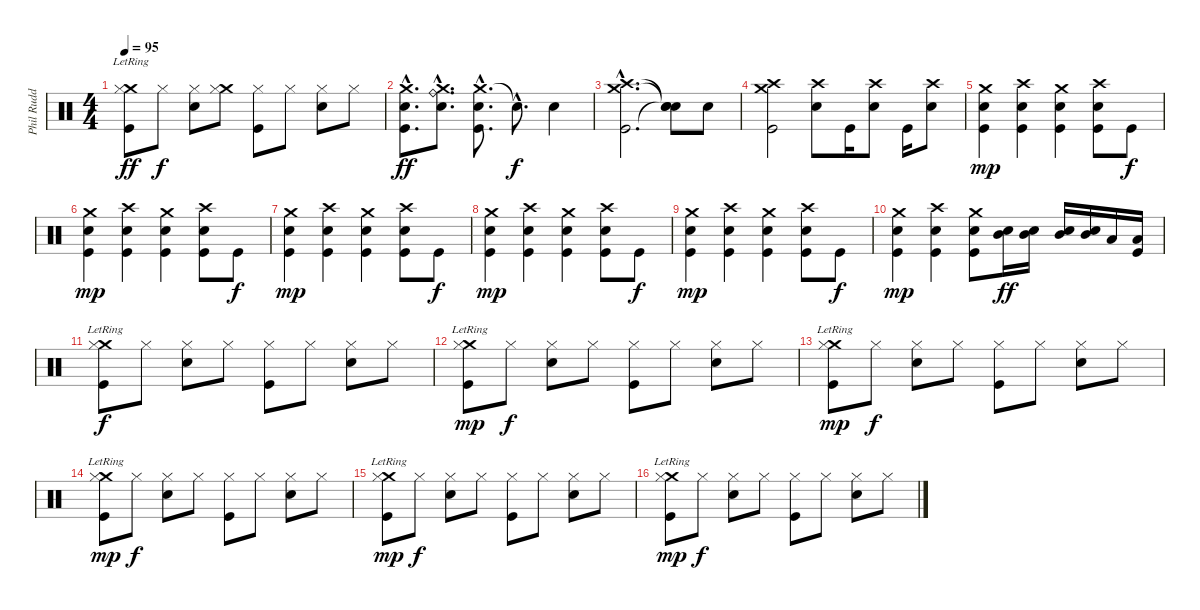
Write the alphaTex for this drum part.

\track ("Phil Rudd" "Phil Rudd") {instrument percussion}
\staff {score}
\articulation defaults
\ts (4 4)
\tempo 95
\clef neutral
\ks c
("Crash medium (hit)"{lr} "Hi-Hat (closed)" "Kick (hit)").8{dy ff} "Hi-Hat (closed)".8{dy f} ("Hi-Hat (closed)" "Snare (hit) 2").8 ("Crash medium (hit)" "Hi-Hat (closed)").8 ("Hi-Hat (closed)" "Kick (hit)").8 "Hi-Hat (closed)".8 ("Hi-Hat (closed)" "Snare (hit) 2").8 "Hi-Hat (closed)".8 |
("Crash medium (hit)"{hac} "Kick (hit)"{hac} "Snare (hit) 2"{hac}).8{d dy ff} ("Crash medium (hit)"{hac} "Ride (bell)"{hac} "Snare (hit) 2"{hac}).8{d} ("Crash medium (hit)"{hac} "Kick (hit)"{hac} "Snare (hit) 2"{hac}).8{d} "Snare (hit)"{hac t}.8{d dy f} "Snare (hit) 2".4 |
("Crash high (hit)"{hac} "Crash medium (hit)"{hac} "Kick (hit)"{hac}).2{d} ("Snare (hit)"{t} "Snare (hit)"{t} "Snare (hit)"{t}).8 "Snare (hit) 2".8 |
("Crash high (hit)" "Crash medium (hit)" "Kick (hit)").2 ("Crash high (hit)" "Snare (hit) 2").8 "Kick (hit)".16 ("Crash high (hit)" "Snare (hit) 2").8 "Kick (hit)".16 ("Crash high (hit)" "Snare (hit) 2").8 |
("Crash medium (hit)" "Kick (hit)" "Snare (hit) 2").4{dy mp} ("Crash high (hit)" "Kick (hit)" "Snare (hit) 2").4 ("Crash medium (hit)" "Kick (hit)" "Snare (hit) 2").4 ("Crash high (hit)" "Kick (hit)" "Snare (hit) 2").8 "Kick (hit)".8{dy f} |
("Crash medium (hit)" "Kick (hit)" "Snare (hit) 2").4{dy mp} ("Crash high (hit)" "Kick (hit)" "Snare (hit) 2").4 ("Crash medium (hit)" "Kick (hit)" "Snare (hit) 2").4 ("Crash high (hit)" "Kick (hit)" "Snare (hit) 2").8 "Kick (hit)".8{dy f} |
("Crash medium (hit)" "Kick (hit)" "Snare (hit) 2").4{dy mp} ("Crash high (hit)" "Kick (hit)" "Snare (hit) 2").4 ("Crash medium (hit)" "Kick (hit)" "Snare (hit) 2").4 ("Crash high (hit)" "Kick (hit)" "Snare (hit) 2").8 "Kick (hit)".8{dy f} |
("Crash medium (hit)" "Kick (hit)" "Snare (hit) 2").4{dy mp} ("Crash high (hit)" "Kick (hit)" "Snare (hit) 2").4 ("Crash medium (hit)" "Kick (hit)" "Snare (hit) 2").4 ("Crash high (hit)" "Kick (hit)" "Snare (hit) 2").8 "Kick (hit)".8{dy f} |
("Crash medium (hit)" "Kick (hit)" "Snare (hit) 2").4{dy mp} ("Crash high (hit)" "Kick (hit)" "Snare (hit) 2").4 ("Crash medium (hit)" "Kick (hit)" "Snare (hit) 2").4 ("Crash high (hit)" "Kick (hit)" "Snare (hit) 2").8 "Kick (hit)".8{dy f} |
("Crash medium (hit)" "Kick (hit)" "Snare (hit) 2").4{dy mp} ("Crash high (hit)" "Kick (hit)" "Snare (hit) 2").4 ("Crash medium (hit)" "Kick (hit)" "Snare (hit) 2").8 ("Mid Tom (hit)" "Snare (hit) 2").16{dy ff} ("Mid Tom (hit)" "Snare (hit) 2").16 ("Mid Tom (hit)" "Snare (hit) 2").16 ("Mid Tom (hit)" "Snare (hit) 2").16 "Low Tom (hit)".16 ("Low Floor Tom (hit)" "Kick (hit)").16 |
("Crash medium (hit)"{lr} "Hi-Hat (closed)" "Kick (hit)").8{dy f} "Hi-Hat (closed)".8 ("Hi-Hat (closed)" "Snare (hit) 2").8 "Hi-Hat (closed)".8 ("Hi-Hat (closed)" "Kick (hit)").8 "Hi-Hat (closed)".8 ("Hi-Hat (closed)" "Snare (hit) 2").8 "Hi-Hat (closed)".8 |
("Crash medium (hit)"{lr} "Hi-Hat (closed)" "Kick (hit)").8{dy mp} "Hi-Hat (closed)".8{dy f} ("Hi-Hat (closed)" "Snare (hit) 2").8 "Hi-Hat (closed)".8 ("Hi-Hat (closed)" "Kick (hit)").8 "Hi-Hat (closed)".8 ("Hi-Hat (closed)" "Snare (hit) 2").8 "Hi-Hat (closed)".8 |
("Crash medium (hit)"{lr} "Hi-Hat (closed)" "Kick (hit)").8{dy mp} "Hi-Hat (closed)".8{dy f} ("Hi-Hat (closed)" "Snare (hit) 2").8 "Hi-Hat (closed)".8 ("Hi-Hat (closed)" "Kick (hit)").8 "Hi-Hat (closed)".8 ("Hi-Hat (closed)" "Snare (hit) 2").8 "Hi-Hat (closed)".8 |
("Crash medium (hit)"{lr} "Hi-Hat (closed)" "Kick (hit)").8{dy mp} "Hi-Hat (closed)".8{dy f} ("Hi-Hat (closed)" "Snare (hit) 2").8 "Hi-Hat (closed)".8 ("Hi-Hat (closed)" "Kick (hit)").8 "Hi-Hat (closed)".8 ("Hi-Hat (closed)" "Snare (hit) 2").8 "Hi-Hat (closed)".8 |
("Crash medium (hit)"{lr} "Hi-Hat (closed)" "Kick (hit)").8{dy mp} "Hi-Hat (closed)".8{dy f} ("Hi-Hat (closed)" "Snare (hit) 2").8 "Hi-Hat (closed)".8 ("Hi-Hat (closed)" "Kick (hit)").8 "Hi-Hat (closed)".8 ("Hi-Hat (closed)" "Snare (hit) 2").8 "Hi-Hat (closed)".8 |
("Crash medium (hit)"{lr} "Hi-Hat (closed)" "Kick (hit)").8{dy mp} "Hi-Hat (closed)".8{dy f} ("Hi-Hat (closed)" "Snare (hit) 2").8 "Hi-Hat (closed)".8 ("Hi-Hat (closed)" "Kick (hit)").8 "Hi-Hat (closed)".8 ("Hi-Hat (closed)" "Snare (hit) 2").8 "Hi-Hat (closed)".8
